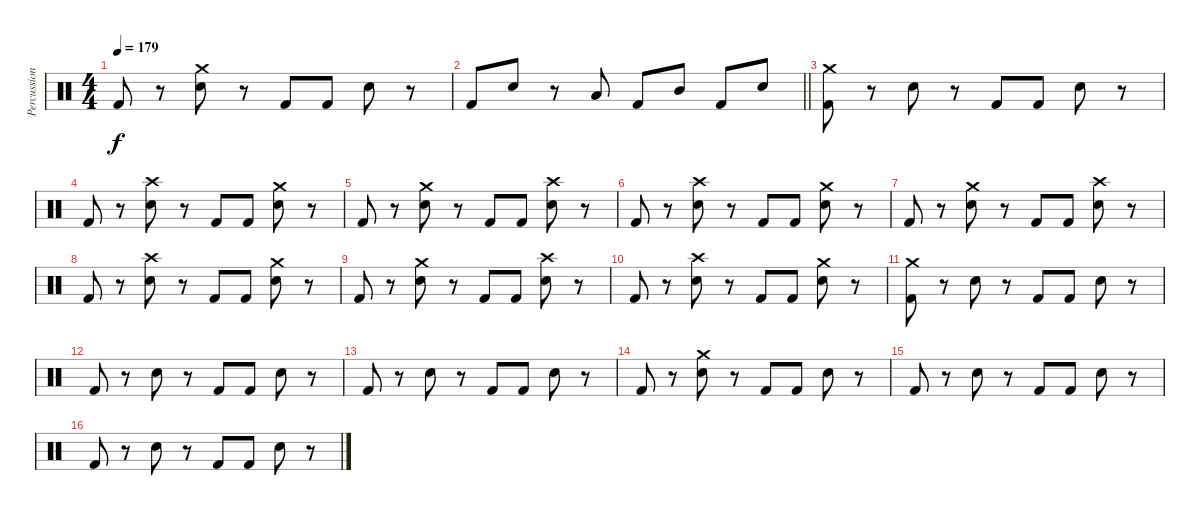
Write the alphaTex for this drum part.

\track ("Percussion" "Percussion") {instrument percussion}
\staff {score}
\articulation defaults
\ts (4 4)
\tempo 179
\clef neutral
\ks c "Kick (hit) 2".8{dy f}
r.8 ("Crash medium (hit)" "Snare (hit) 2").8 r.8 "Kick (hit) 2".8 "Kick (hit) 2".8 "Snare (hit) 2".8 r.8 |
\barLineRight lightlight "Kick (hit) 2".8 "Snare (hit) 2".8
r.8 "Low Tom (hit)".8 "Kick (hit) 2".8 "Mid Tom (hit)".8 "Kick (hit) 2".8 "Snare (hit) 2".8 |
("Crash medium (hit)" "Kick (hit) 2").8 r.8 "Snare (hit) 2".8 r.8 "Kick (hit) 2".8 "Kick (hit) 2".8 "Snare (hit) 2".8 r.8 |
"Kick (hit) 2".8 r.8 ("Crash high (hit)" "Snare (hit) 2").8 r.8 "Kick (hit) 2".8 "Kick (hit) 2".8 ("Crash medium (hit)" "Snare (hit) 2").8 r.8 |
"Kick (hit) 2".8 r.8 ("Crash medium (hit)" "Snare (hit) 2").8 r.8 "Kick (hit) 2".8 "Kick (hit) 2".8 ("Crash high (hit)" "Snare (hit) 2").8 r.8 |
"Kick (hit) 2".8 r.8 ("Crash high (hit)" "Snare (hit) 2").8 r.8 "Kick (hit) 2".8 "Kick (hit) 2".8 ("Crash medium (hit)" "Snare (hit) 2").8 r.8 |
"Kick (hit) 2".8 r.8 ("Crash medium (hit)" "Snare (hit) 2").8 r.8 "Kick (hit) 2".8 "Kick (hit) 2".8 ("Crash high (hit)" "Snare (hit) 2").8 r.8 |
"Kick (hit) 2".8 r.8 ("Crash high (hit)" "Snare (hit) 2").8 r.8 "Kick (hit) 2".8 "Kick (hit) 2".8 ("Crash medium (hit)" "Snare (hit) 2").8 r.8 |
"Kick (hit) 2".8 r.8 ("Crash medium (hit)" "Snare (hit) 2").8 r.8 "Kick (hit) 2".8 "Kick (hit) 2".8 ("Crash high (hit)" "Snare (hit) 2").8 r.8 |
"Kick (hit) 2".8 r.8 ("Crash high (hit)" "Snare (hit) 2").8 r.8 "Kick (hit) 2".8 "Kick (hit) 2".8 ("Crash medium (hit)" "Snare (hit) 2").8 r.8 |
("Crash medium (hit)" "Kick (hit) 2").8 r.8 "Snare (hit) 2".8 r.8 "Kick (hit) 2".8 "Kick (hit) 2".8 "Snare (hit) 2".8 r.8 |
"Kick (hit) 2".8 r.8 "Snare (hit) 2".8 r.8 "Kick (hit) 2".8 "Kick (hit) 2".8 "Snare (hit) 2".8 r.8 |
"Kick (hit) 2".8 r.8 "Snare (hit) 2".8 r.8 "Kick (hit) 2".8 "Kick (hit) 2".8 "Snare (hit) 2".8 r.8 |
"Kick (hit) 2".8 r.8 ("Crash medium (hit)" "Snare (hit) 2").8 r.8 "Kick (hit) 2".8 "Kick (hit) 2".8 "Snare (hit) 2".8 r.8 |
"Kick (hit) 2".8 r.8 "Snare (hit) 2".8 r.8 "Kick (hit) 2".8 "Kick (hit) 2".8 "Snare (hit) 2".8 r.8 |
"Kick (hit) 2".8 r.8 "Snare (hit) 2".8 r.8 "Kick (hit) 2".8 "Kick (hit) 2".8 "Snare (hit) 2".8 r.8
